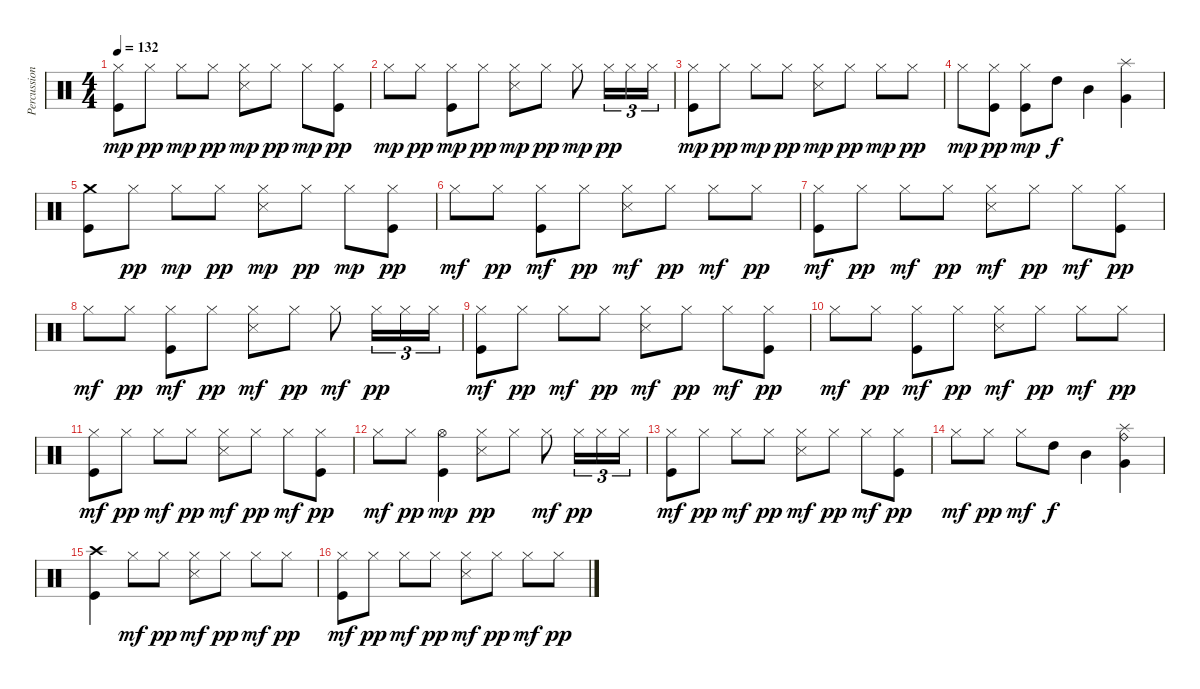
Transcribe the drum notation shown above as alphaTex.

\track ("Percussion" "Percussion") {instrument percussion}
\staff {score}
\articulation defaults
\ts (4 4)
\tempo 132
\clef neutral
\ks c
("Hi-Hat (closed)" "Kick (hit)").8{dy mp} "Hi-Hat (closed)".8{dy pp} "Hi-Hat (closed)".8{dy mp} "Hi-Hat (closed)".8{dy pp} ("Hi-Hat (closed)" "Snare (side stick) 3").8{dy mp} "Hi-Hat (closed)".8{dy pp} "Hi-Hat (closed)".8{dy mp} ("Hi-Hat (closed)" "Kick (hit)").8{dy pp} |
"Hi-Hat (closed)".8{dy mp} "Hi-Hat (closed)".8{dy pp} ("Hi-Hat (closed)" "Kick (hit)").8{dy mp} "Hi-Hat (closed)".8{dy pp} ("Hi-Hat (closed)" "Snare (side stick) 3").8{dy mp} "Hi-Hat (closed)".8{dy pp} "Hi-Hat (closed)".8{dy mp} "Hi-Hat (closed)".16{tu (3 2) dy pp} "Hi-Hat (closed)".16{tu (3 2)} "Hi-Hat (closed)".16{tu (3 2)} |
("Hi-Hat (closed)" "Kick (hit)").8{dy mp} "Hi-Hat (closed)".8{dy pp} "Hi-Hat (closed)".8{dy mp} "Hi-Hat (closed)".8{dy pp} ("Hi-Hat (closed)" "Snare (side stick) 3").8{dy mp} "Hi-Hat (closed)".8{dy pp} "Hi-Hat (closed)".8{dy mp} "Hi-Hat (closed)".8{dy pp} |
"Hi-Hat (closed)".8{dy mp} ("Hi-Hat (closed)" "Kick (hit)").8{dy pp} ("Hi-Hat (closed)" "Kick (hit)").8{dy mp} "High Tom (hit)".8{dy f} "Mid Tom (hit)".4 ("Splash (hit)" "Very Low Tom (hit)").4 |
("Crash medium (hit)" "Kick (hit)").8 "Hi-Hat (closed)".8{dy pp} "Hi-Hat (closed)".8{dy mp} "Hi-Hat (closed)".8{dy pp} ("Hi-Hat (closed)" "Snare (side stick) 3").8{dy mp} "Hi-Hat (closed)".8{dy pp} "Hi-Hat (closed)".8{dy mp} ("Hi-Hat (closed)" "Kick (hit)").8{dy pp} |
"Hi-Hat (closed)".8{dy mf} "Hi-Hat (closed)".8{dy pp} ("Hi-Hat (closed)" "Kick (hit)").8{dy mf} "Hi-Hat (closed)".8{dy pp} ("Hi-Hat (closed)" "Snare (side stick) 3").8{dy mf} "Hi-Hat (closed)".8{dy pp} "Hi-Hat (closed)".8{dy mf} "Hi-Hat (closed)".8{dy pp} |
("Hi-Hat (closed)" "Kick (hit)").8{dy mf} "Hi-Hat (closed)".8{dy pp} "Hi-Hat (closed)".8{dy mf} "Hi-Hat (closed)".8{dy pp} ("Hi-Hat (closed)" "Snare (side stick) 3").8{dy mf} "Hi-Hat (closed)".8{dy pp} "Hi-Hat (closed)".8{dy mf} ("Hi-Hat (closed)" "Kick (hit)").8{dy pp} |
"Hi-Hat (closed)".8{dy mf} "Hi-Hat (closed)".8{dy pp} ("Hi-Hat (closed)" "Kick (hit)").8{dy mf} "Hi-Hat (closed)".8{dy pp} ("Hi-Hat (closed)" "Snare (side stick) 3").8{dy mf} "Hi-Hat (closed)".8{dy pp} "Hi-Hat (closed)".8{dy mf} "Hi-Hat (closed)".16{tu (3 2) dy pp} "Hi-Hat (closed)".16{tu (3 2)} "Hi-Hat (closed)".16{tu (3 2)} |
("Hi-Hat (closed)" "Kick (hit)").8{dy mf} "Hi-Hat (closed)".8{dy pp} "Hi-Hat (closed)".8{dy mf} "Hi-Hat (closed)".8{dy pp} ("Hi-Hat (closed)" "Snare (side stick) 3").8{dy mf} "Hi-Hat (closed)".8{dy pp} "Hi-Hat (closed)".8{dy mf} ("Hi-Hat (closed)" "Kick (hit)").8{dy pp} |
"Hi-Hat (closed)".8{dy mf} "Hi-Hat (closed)".8{dy pp} ("Hi-Hat (closed)" "Kick (hit)").8{dy mf} "Hi-Hat (closed)".8{dy pp} ("Hi-Hat (closed)" "Snare (side stick) 3").8{dy mf} "Hi-Hat (closed)".8{dy pp} "Hi-Hat (closed)".8{dy mf} "Hi-Hat (closed)".8{dy pp} |
("Hi-Hat (closed)" "Kick (hit)").8{dy mf} "Hi-Hat (closed)".8{dy pp} "Hi-Hat (closed)".8{dy mf} "Hi-Hat (closed)".8{dy pp} ("Hi-Hat (closed)" "Snare (side stick) 3").8{dy mf} "Hi-Hat (closed)".8{dy pp} "Hi-Hat (closed)".8{dy mf} ("Hi-Hat (closed)" "Kick (hit)").8{dy pp} |
"Hi-Hat (closed)".8{dy mf} "Hi-Hat (closed)".8{dy pp} ("Hi-Hat (open)" "Kick (hit)").4{dy mp} ("Hi-Hat (closed)" "Snare (side stick) 3").8{dy pp} "Hi-Hat (closed)".8 "Hi-Hat (closed)".8{dy mf} "Hi-Hat (closed)".16{tu (3 2) dy pp} "Hi-Hat (closed)".16{tu (3 2)} "Hi-Hat (closed)".16{tu (3 2)} |
("Hi-Hat (closed)" "Kick (hit)").8{dy mf} "Hi-Hat (closed)".8{dy pp} "Hi-Hat (closed)".8{dy mf} "Hi-Hat (closed)".8{dy pp} ("Hi-Hat (closed)" "Snare (side stick) 3").8{dy mf} "Hi-Hat (closed)".8{dy pp} "Hi-Hat (closed)".8{dy mf} ("Hi-Hat (closed)" "Kick (hit)").8{dy pp} |
"Hi-Hat (closed)".8{dy mf} "Hi-Hat (closed)".8{dy pp} "Hi-Hat (closed)".8{dy mf} "High Tom (hit)".8{dy f} "Mid Tom (hit)".4 ("Ride (bell)" "Splash (hit)" "Very Low Tom (hit)").4 |
("Crash high (hit)" "Kick (hit)").4 "Hi-Hat (closed)".8{dy mf} "Hi-Hat (closed)".8{dy pp} ("Hi-Hat (closed)" "Snare (side stick) 3").8{dy mf} "Hi-Hat (closed)".8{dy pp} "Hi-Hat (closed)".8{dy mf} "Hi-Hat (closed)".8{dy pp} |
("Hi-Hat (closed)" "Kick (hit)").8{dy mf} "Hi-Hat (closed)".8{dy pp} "Hi-Hat (closed)".8{dy mf} "Hi-Hat (closed)".8{dy pp} ("Hi-Hat (closed)" "Snare (side stick) 3").8{dy mf} "Hi-Hat (closed)".8{dy pp} "Hi-Hat (closed)".8{dy mf} "Hi-Hat (closed)".8{dy pp}
